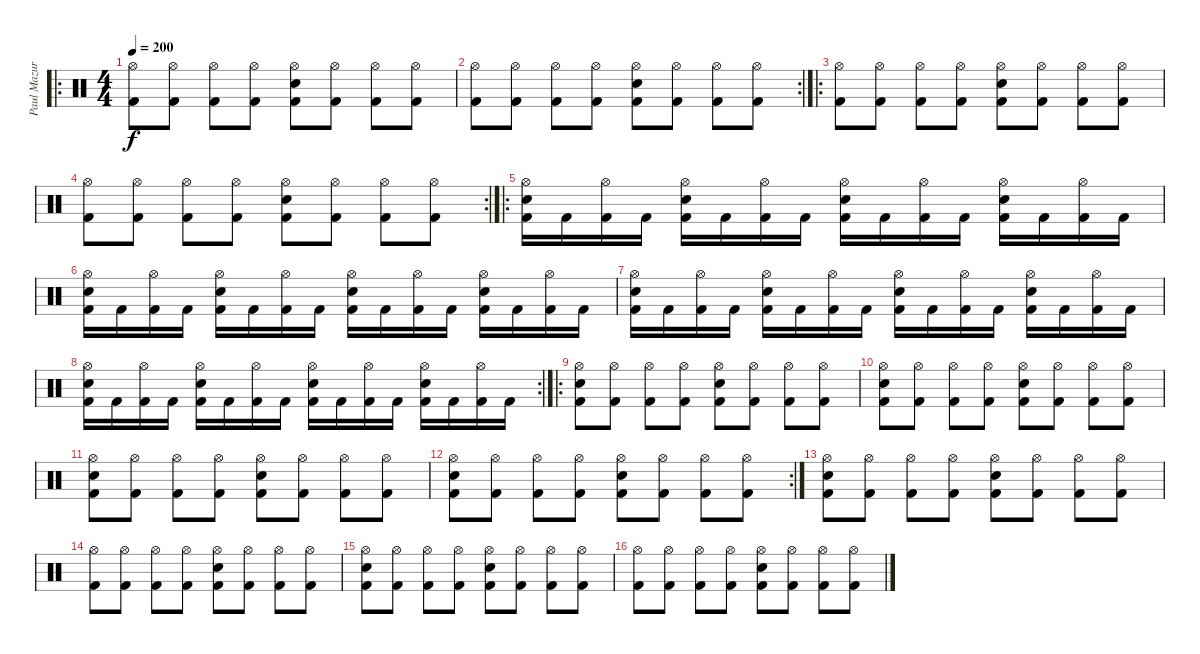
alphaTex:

\track ("Paul Mazurkiewicz" "Paul Mazur") {instrument percussion}
\staff {score}
\articulation defaults
\ro
\ts (4 4)
\tempo 200
\clef neutral
\ks c
("Hi-Hat (open)" "Kick (hit) 2").8{dy f} ("Hi-Hat (open)" "Kick (hit) 2").8 ("Hi-Hat (open)" "Kick (hit) 2").8 ("Hi-Hat (open)" "Kick (hit) 2").8 ("Hi-Hat (open)" "Snare (hit) 2" "Kick (hit) 2").8 ("Hi-Hat (open)" "Kick (hit) 2").8 ("Hi-Hat (open)" "Kick (hit) 2").8 ("Hi-Hat (open)" "Kick (hit) 2").8 |
\rc 2
("Hi-Hat (open)" "Kick (hit) 2").8 ("Hi-Hat (open)" "Kick (hit) 2").8 ("Hi-Hat (open)" "Kick (hit) 2").8 ("Hi-Hat (open)" "Kick (hit) 2").8 ("Hi-Hat (open)" "Snare (hit) 2" "Kick (hit) 2").8 ("Hi-Hat (open)" "Kick (hit) 2").8 ("Hi-Hat (open)" "Kick (hit) 2").8 ("Hi-Hat (open)" "Kick (hit) 2").8 |
\ro
("Hi-Hat (open)" "Kick (hit) 2").8 ("Hi-Hat (open)" "Kick (hit) 2").8 ("Hi-Hat (open)" "Kick (hit) 2").8 ("Hi-Hat (open)" "Kick (hit) 2").8 ("Hi-Hat (open)" "Snare (hit) 2" "Kick (hit) 2").8 ("Hi-Hat (open)" "Kick (hit) 2").8 ("Hi-Hat (open)" "Kick (hit) 2").8 ("Hi-Hat (open)" "Kick (hit) 2").8 |
\rc 2
("Hi-Hat (open)" "Kick (hit) 2").8 ("Hi-Hat (open)" "Kick (hit) 2").8 ("Hi-Hat (open)" "Kick (hit) 2").8 ("Hi-Hat (open)" "Kick (hit) 2").8 ("Hi-Hat (open)" "Snare (hit) 2" "Kick (hit) 2").8 ("Hi-Hat (open)" "Kick (hit) 2").8 ("Hi-Hat (open)" "Kick (hit) 2").8 ("Hi-Hat (open)" "Kick (hit) 2").8 |
\ro
("Hi-Hat (open)" "Snare (hit) 2" "Kick (hit) 2").16 "Kick (hit) 2".16 ("Hi-Hat (open)" "Kick (hit) 2").16 "Kick (hit) 2".16 ("Hi-Hat (open)" "Snare (hit) 2" "Kick (hit) 2").16 "Kick (hit) 2".16 ("Hi-Hat (open)" "Kick (hit) 2").16 "Kick (hit) 2".16 ("Hi-Hat (open)" "Snare (hit) 2" "Kick (hit) 2").16 "Kick (hit) 2".16 ("Hi-Hat (open)" "Kick (hit) 2").16 "Kick (hit) 2".16 ("Hi-Hat (open)" "Snare (hit) 2" "Kick (hit) 2").16 "Kick (hit) 2".16 ("Hi-Hat (open)" "Kick (hit) 2").16 "Kick (hit) 2".16 |
("Hi-Hat (open)" "Snare (hit) 2" "Kick (hit) 2").16 "Kick (hit) 2".16 ("Hi-Hat (open)" "Kick (hit) 2").16 "Kick (hit) 2".16 ("Hi-Hat (open)" "Snare (hit) 2" "Kick (hit) 2").16 "Kick (hit) 2".16 ("Hi-Hat (open)" "Kick (hit) 2").16 "Kick (hit) 2".16 ("Hi-Hat (open)" "Snare (hit) 2" "Kick (hit) 2").16 "Kick (hit) 2".16 ("Hi-Hat (open)" "Kick (hit) 2").16 "Kick (hit) 2".16 ("Hi-Hat (open)" "Snare (hit) 2" "Kick (hit) 2").16 "Kick (hit) 2".16 ("Hi-Hat (open)" "Kick (hit) 2").16 "Kick (hit) 2".16 |
("Hi-Hat (open)" "Snare (hit) 2" "Kick (hit) 2").16 "Kick (hit) 2".16 ("Hi-Hat (open)" "Kick (hit) 2").16 "Kick (hit) 2".16 ("Hi-Hat (open)" "Snare (hit) 2" "Kick (hit) 2").16 "Kick (hit) 2".16 ("Hi-Hat (open)" "Kick (hit) 2").16 "Kick (hit) 2".16 ("Hi-Hat (open)" "Snare (hit) 2" "Kick (hit) 2").16 "Kick (hit) 2".16 ("Hi-Hat (open)" "Kick (hit) 2").16 "Kick (hit) 2".16 ("Hi-Hat (open)" "Snare (hit) 2" "Kick (hit) 2").16 "Kick (hit) 2".16 ("Hi-Hat (open)" "Kick (hit) 2").16 "Kick (hit) 2".16 |
\rc 2
("Hi-Hat (open)" "Snare (hit) 2" "Kick (hit) 2").16 "Kick (hit) 2".16 ("Hi-Hat (open)" "Kick (hit) 2").16 "Kick (hit) 2".16 ("Hi-Hat (open)" "Snare (hit) 2" "Kick (hit) 2").16 "Kick (hit) 2".16 ("Hi-Hat (open)" "Kick (hit) 2").16 "Kick (hit) 2".16 ("Hi-Hat (open)" "Snare (hit) 2" "Kick (hit) 2").16 "Kick (hit) 2".16 ("Hi-Hat (open)" "Kick (hit) 2").16 "Kick (hit) 2".16 ("Hi-Hat (open)" "Snare (hit) 2" "Kick (hit) 2").16 "Kick (hit) 2".16 ("Hi-Hat (open)" "Kick (hit) 2").16 "Kick (hit) 2".16 |
\ro
("Hi-Hat (open)" "Snare (hit) 2" "Kick (hit) 2").8 ("Hi-Hat (open)" "Kick (hit) 2").8 ("Hi-Hat (open)" "Kick (hit) 2").8 ("Hi-Hat (open)" "Kick (hit) 2").8 ("Hi-Hat (open)" "Snare (hit) 2" "Kick (hit) 2").8 ("Hi-Hat (open)" "Kick (hit) 2").8 ("Hi-Hat (open)" "Kick (hit) 2").8 ("Hi-Hat (open)" "Kick (hit) 2").8 |
("Hi-Hat (open)" "Snare (hit) 2" "Kick (hit) 2").8 ("Hi-Hat (open)" "Kick (hit) 2").8 ("Hi-Hat (open)" "Kick (hit) 2").8 ("Hi-Hat (open)" "Kick (hit) 2").8 ("Hi-Hat (open)" "Snare (hit) 2" "Kick (hit) 2").8 ("Hi-Hat (open)" "Kick (hit) 2").8 ("Hi-Hat (open)" "Kick (hit) 2").8 ("Hi-Hat (open)" "Kick (hit) 2").8 |
("Hi-Hat (open)" "Snare (hit) 2" "Kick (hit) 2").8 ("Hi-Hat (open)" "Kick (hit) 2").8 ("Hi-Hat (open)" "Kick (hit) 2").8 ("Hi-Hat (open)" "Kick (hit) 2").8 ("Hi-Hat (open)" "Snare (hit) 2" "Kick (hit) 2").8 ("Hi-Hat (open)" "Kick (hit) 2").8 ("Hi-Hat (open)" "Kick (hit) 2").8 ("Hi-Hat (open)" "Kick (hit) 2").8 |
\rc 2
("Hi-Hat (open)" "Snare (hit) 2" "Kick (hit) 2").8 ("Hi-Hat (open)" "Kick (hit) 2").8 ("Hi-Hat (open)" "Kick (hit) 2").8 ("Hi-Hat (open)" "Kick (hit) 2").8 ("Hi-Hat (open)" "Snare (hit) 2" "Kick (hit) 2").8 ("Hi-Hat (open)" "Kick (hit) 2").8 ("Hi-Hat (open)" "Kick (hit) 2").8 ("Hi-Hat (open)" "Kick (hit) 2").8 |
("Hi-Hat (open)" "Snare (hit) 2" "Kick (hit) 2").8 ("Hi-Hat (open)" "Kick (hit) 2").8 ("Hi-Hat (open)" "Kick (hit) 2").8 ("Hi-Hat (open)" "Kick (hit) 2").8 ("Hi-Hat (open)" "Snare (hit) 2" "Kick (hit) 2").8 ("Hi-Hat (open)" "Kick (hit) 2").8 ("Hi-Hat (open)" "Kick (hit) 2").8 ("Hi-Hat (open)" "Kick (hit) 2").8 |
("Hi-Hat (open)" "Kick (hit) 2").8 ("Hi-Hat (open)" "Kick (hit) 2").8 ("Hi-Hat (open)" "Kick (hit) 2").8 ("Hi-Hat (open)" "Kick (hit) 2").8 ("Hi-Hat (open)" "Snare (hit) 2" "Kick (hit) 2").8 ("Hi-Hat (open)" "Kick (hit) 2").8 ("Hi-Hat (open)" "Kick (hit) 2").8 ("Hi-Hat (open)" "Kick (hit) 2").8 |
("Hi-Hat (open)" "Snare (hit) 2" "Kick (hit) 2").8 ("Hi-Hat (open)" "Kick (hit) 2").8 ("Hi-Hat (open)" "Kick (hit) 2").8 ("Hi-Hat (open)" "Kick (hit) 2").8 ("Hi-Hat (open)" "Snare (hit) 2" "Kick (hit) 2").8 ("Hi-Hat (open)" "Kick (hit) 2").8 ("Hi-Hat (open)" "Kick (hit) 2").8 ("Hi-Hat (open)" "Kick (hit) 2").8 |
("Hi-Hat (open)" "Kick (hit) 2").8 ("Hi-Hat (open)" "Kick (hit) 2").8 ("Hi-Hat (open)" "Kick (hit) 2").8 ("Hi-Hat (open)" "Kick (hit) 2").8 ("Hi-Hat (open)" "Snare (hit) 2" "Kick (hit) 2").8 ("Hi-Hat (open)" "Kick (hit) 2").8 ("Hi-Hat (open)" "Kick (hit) 2").8 ("Hi-Hat (open)" "Kick (hit) 2").8
